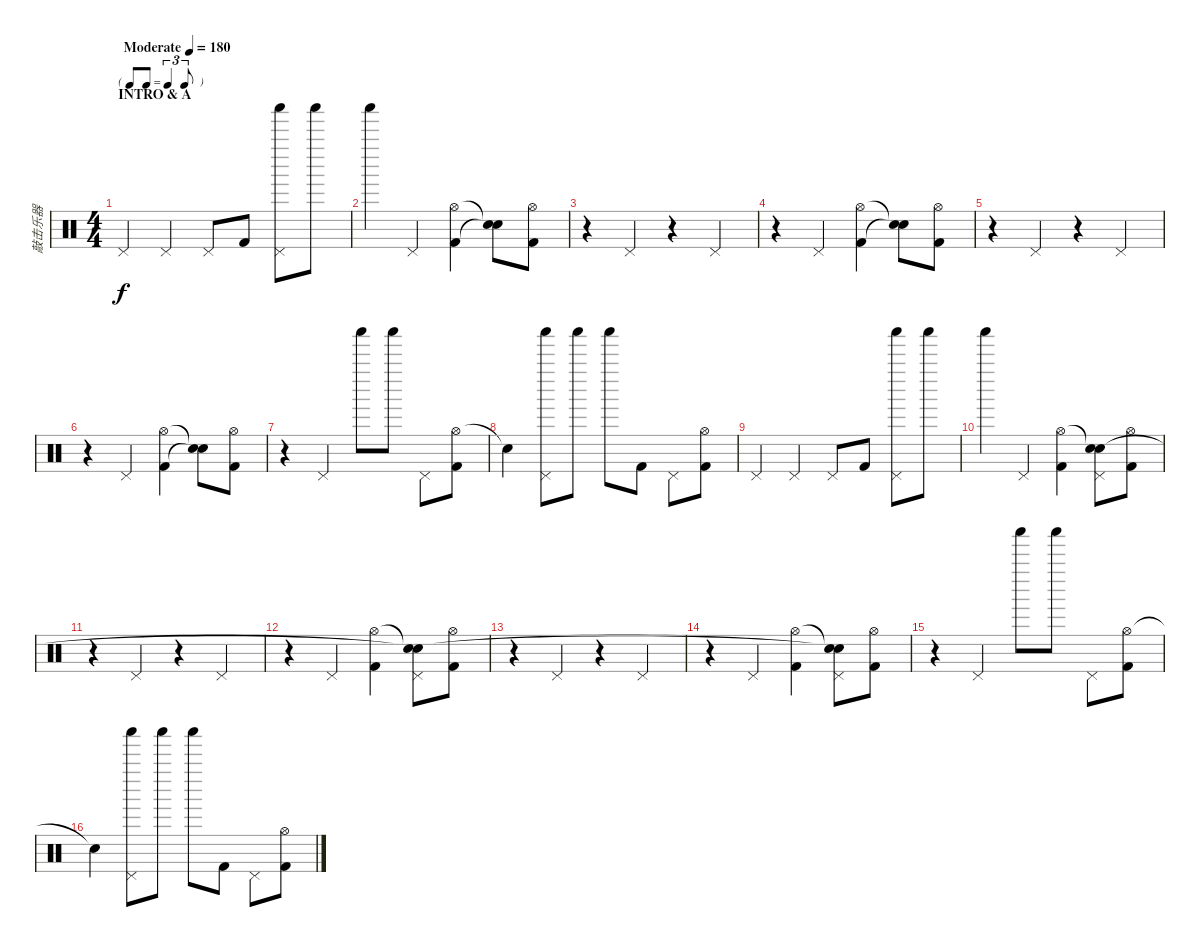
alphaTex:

\track ("敲击乐器" "敲击乐器") {instrument percussion}
\staff {score}
\articulation defaults
\ts (4 4)
\tf triplet8th
\section ("" "INTRO & A")
\tempo (180 "Moderate")
\clef neutral
\ks c "Pedal Hi-Hat (hit)".4{dy f} "Pedal Hi-Hat (hit)".4 "Pedal Hi-Hat (hit)".8 "Kick (hit) 2".8
("Pedal Hi-Hat (hit)" "Shaker (hit)").8 "Shaker (hit)".8 |
"Shaker (hit)".4 "Pedal Hi-Hat (hit)".4 ("Hi-Hat (open)" "Kick (hit) 2").4 ("Snare (hit)"{t} "Snare (hit)"{t}).8 ("Hi-Hat (open)" "Kick (hit) 2").8 |
r.4 "Pedal Hi-Hat (hit)".4 r.4 "Pedal Hi-Hat (hit)".4 |
r.4 "Pedal Hi-Hat (hit)".4 ("Hi-Hat (open)" "Kick (hit) 2").4 ("Snare (hit)"{t} "Snare (hit)"{t}).8 ("Hi-Hat (open)" "Kick (hit) 2").8 |
r.4 "Pedal Hi-Hat (hit)".4 r.4 "Pedal Hi-Hat (hit)".4 |
r.4 "Pedal Hi-Hat (hit)".4 ("Hi-Hat (open)" "Kick (hit) 2").4 ("Snare (hit)"{t} "Snare (hit)"{t}).8 ("Hi-Hat (open)" "Kick (hit) 2").8 |
r.4 "Pedal Hi-Hat (hit)".4 "Shaker (hit)".8 "Shaker (hit)".8 "Pedal Hi-Hat (hit)".8 ("Hi-Hat (open)" "Kick (hit) 2").8 |
"Snare (hit)"{t}.4 ("Pedal Hi-Hat (hit)" "Shaker (hit)").8 "Shaker (hit)".8 "Shaker (hit)".8 "Kick (hit) 2".8 "Pedal Hi-Hat (hit)".8 ("Hi-Hat (open)" "Kick (hit) 2").8 |
"Pedal Hi-Hat (hit)".4 "Pedal Hi-Hat (hit)".4 "Pedal Hi-Hat (hit)".8 "Kick (hit) 2".8 ("Pedal Hi-Hat (hit)" "Shaker (hit)").8 "Shaker (hit)".8 |
"Shaker (hit)".4 "Pedal Hi-Hat (hit)".4 ("Hi-Hat (open)" "Kick (hit) 2").4 ("Snare (hit)"{t} "Pedal Hi-Hat (hit)" "Snare (hit)").8 ("Hi-Hat (open)" "Kick (hit) 2").8 |
r.4 "Pedal Hi-Hat (hit)".4 r.4 "Pedal Hi-Hat (hit)".4 |
r.4 "Pedal Hi-Hat (hit)".4 ("Hi-Hat (open)" "Kick (hit) 2").4 ("Snare (hit)"{t} "Pedal Hi-Hat (hit)" "Snare (hit)"{t}).8 ("Hi-Hat (open)" "Kick (hit) 2").8 |
r.4 "Pedal Hi-Hat (hit)".4 r.4 "Pedal Hi-Hat (hit)".4 |
r.4 "Pedal Hi-Hat (hit)".4 ("Hi-Hat (open)" "Kick (hit) 2").4 ("Snare (hit)"{t} "Pedal Hi-Hat (hit)" "Snare (hit)"{t}).8 ("Hi-Hat (open)" "Kick (hit) 2").8 |
r.4 "Pedal Hi-Hat (hit)".4 "Shaker (hit)".8 "Shaker (hit)".8 "Pedal Hi-Hat (hit)".8 ("Hi-Hat (open)" "Kick (hit) 2").8 |
"Snare (hit)"{t}.4 ("Pedal Hi-Hat (hit)" "Shaker (hit)").8 "Shaker (hit)".8 "Shaker (hit)".8 "Kick (hit) 2".8 "Pedal Hi-Hat (hit)".8 ("Hi-Hat (open)" "Kick (hit) 2").8
